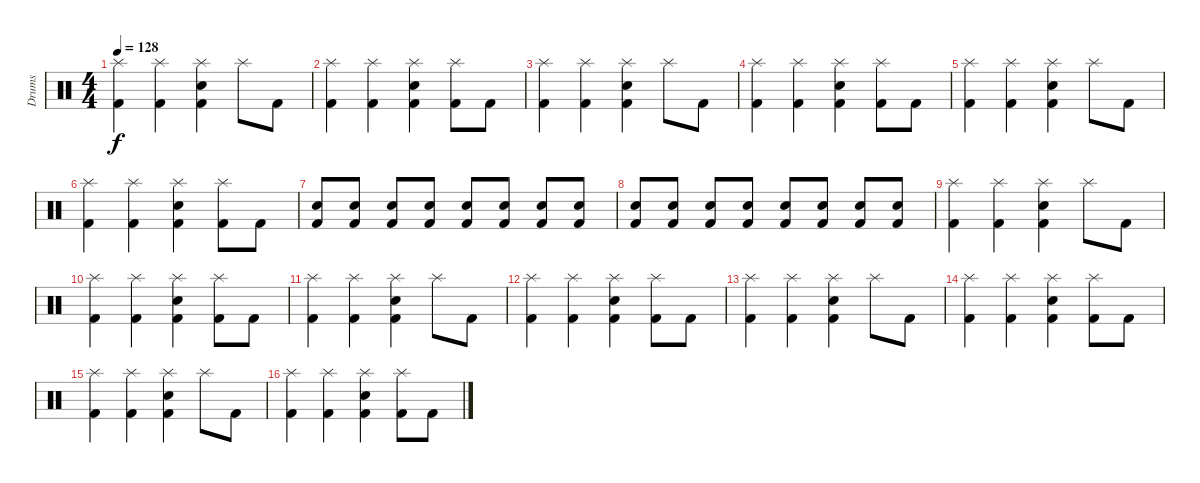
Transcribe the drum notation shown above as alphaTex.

\track ("Drums" "Drums") {instrument percussion}
\staff {score}
\articulation defaults
\ts (4 4)
\tempo 128
\clef neutral
\ks c
("Splash (hit)" "Kick (hit) 2").4{dy f} ("Splash (hit)" "Kick (hit) 2").4 ("Splash (hit)" "Electric Snare (hit)" "Kick (hit) 2").4 "Splash (hit)".8 "Kick (hit) 2".8 |
("Splash (hit)" "Kick (hit) 2").4 ("Splash (hit)" "Kick (hit) 2").4 ("Splash (hit)" "Electric Snare (hit)" "Kick (hit) 2").4 ("Splash (hit)" "Kick (hit) 2").8 "Kick (hit) 2".8 |
("Splash (hit)" "Kick (hit) 2").4 ("Splash (hit)" "Kick (hit) 2").4 ("Splash (hit)" "Electric Snare (hit)" "Kick (hit) 2").4 "Splash (hit)".8 "Kick (hit) 2".8 |
("Splash (hit)" "Kick (hit) 2").4 ("Splash (hit)" "Kick (hit) 2").4 ("Splash (hit)" "Electric Snare (hit)" "Kick (hit) 2").4 ("Splash (hit)" "Kick (hit) 2").8 "Kick (hit) 2".8 |
("Splash (hit)" "Kick (hit) 2").4 ("Splash (hit)" "Kick (hit) 2").4 ("Splash (hit)" "Electric Snare (hit)" "Kick (hit) 2").4 "Splash (hit)".8 "Kick (hit) 2".8 |
("Splash (hit)" "Kick (hit) 2").4 ("Splash (hit)" "Kick (hit) 2").4 ("Splash (hit)" "Electric Snare (hit)" "Kick (hit) 2").4 ("Splash (hit)" "Kick (hit) 2").8 "Kick (hit) 2".8 |
("Snare (hit) 2" "Kick (hit) 2").8 ("Snare (hit) 2" "Kick (hit) 2").8 ("Snare (hit) 2" "Kick (hit) 2").8 ("Snare (hit) 2" "Kick (hit) 2").8 ("Snare (hit) 2" "Kick (hit) 2").8 ("Snare (hit) 2" "Kick (hit) 2").8 ("Snare (hit) 2" "Kick (hit) 2").8 ("Snare (hit) 2" "Kick (hit) 2").8 |
("Snare (hit) 2" "Kick (hit) 2").8 ("Snare (hit) 2" "Kick (hit) 2").8 ("Snare (hit) 2" "Kick (hit) 2").8 ("Snare (hit) 2" "Kick (hit) 2").8 ("Snare (hit) 2" "Kick (hit) 2").8 ("Snare (hit) 2" "Kick (hit) 2").8 ("Snare (hit) 2" "Kick (hit) 2").8 ("Snare (hit) 2" "Kick (hit) 2").8 |
("Splash (hit)" "Kick (hit) 2").4 ("Splash (hit)" "Kick (hit) 2").4 ("Splash (hit)" "Electric Snare (hit)" "Kick (hit) 2").4 "Splash (hit)".8 "Kick (hit) 2".8 |
("Splash (hit)" "Kick (hit) 2").4 ("Splash (hit)" "Kick (hit) 2").4 ("Splash (hit)" "Electric Snare (hit)" "Kick (hit) 2").4 ("Splash (hit)" "Kick (hit) 2").8 "Kick (hit) 2".8 |
("Splash (hit)" "Kick (hit) 2").4 ("Splash (hit)" "Kick (hit) 2").4 ("Splash (hit)" "Electric Snare (hit)" "Kick (hit) 2").4 "Splash (hit)".8 "Kick (hit) 2".8 |
("Splash (hit)" "Kick (hit) 2").4 ("Splash (hit)" "Kick (hit) 2").4 ("Splash (hit)" "Electric Snare (hit)" "Kick (hit) 2").4 ("Splash (hit)" "Kick (hit) 2").8 "Kick (hit) 2".8 |
("Splash (hit)" "Kick (hit) 2").4 ("Splash (hit)" "Kick (hit) 2").4 ("Splash (hit)" "Electric Snare (hit)" "Kick (hit) 2").4 "Splash (hit)".8 "Kick (hit) 2".8 |
("Splash (hit)" "Kick (hit) 2").4 ("Splash (hit)" "Kick (hit) 2").4 ("Splash (hit)" "Electric Snare (hit)" "Kick (hit) 2").4 ("Splash (hit)" "Kick (hit) 2").8 "Kick (hit) 2".8 |
("Splash (hit)" "Kick (hit) 2").4 ("Splash (hit)" "Kick (hit) 2").4 ("Splash (hit)" "Electric Snare (hit)" "Kick (hit) 2").4 "Splash (hit)".8 "Kick (hit) 2".8 |
("Splash (hit)" "Kick (hit) 2").4 ("Splash (hit)" "Kick (hit) 2").4 ("Splash (hit)" "Electric Snare (hit)" "Kick (hit) 2").4 ("Splash (hit)" "Kick (hit) 2").8 "Kick (hit) 2".8
